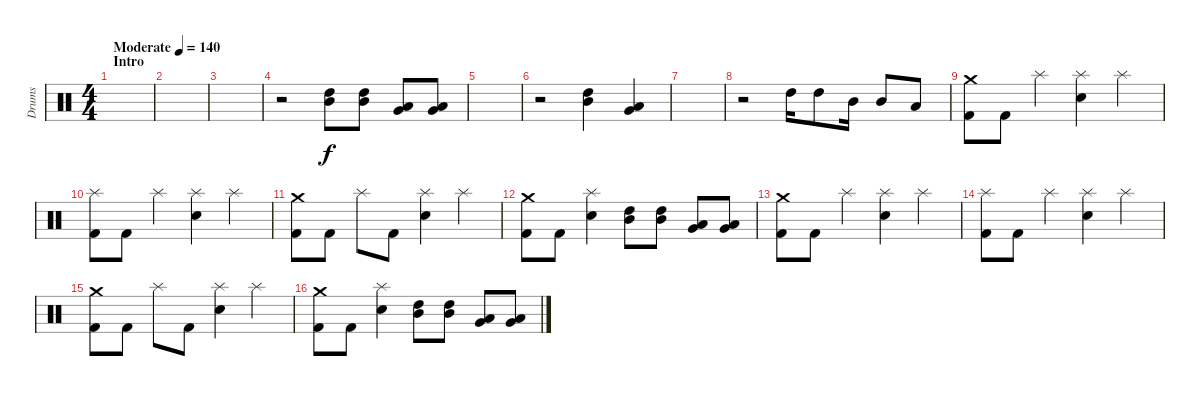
\track ("Drums" "Drums") {instrument percussion}
\staff {score}
\articulation defaults
\ts (4 4)
\section ("" "Intro")
\tempo (140 "Moderate")
\clef neutral
\ks c
|
|
|
r.2 ("High Tom (hit)" "Mid Tom (hit)").8 ("High Tom (hit)" "Mid Tom (hit)").8 ("Low Tom (hit)" "Very Low Tom (hit)").8 ("Low Tom (hit)" "Very Low Tom (hit)").8 |
|
r.2 ("High Tom (hit)" "Mid Tom (hit)").4 ("Low Tom (hit)" "Very Low Tom (hit)").4 |
|
r.2 "High Tom (hit)".16 "High Tom (hit)".8 "Mid Tom (hit)".16 "Mid Tom (hit)".8 "Low Tom (hit)".8 |
("Kick (hit) 2" "Crash medium (hit)").8 "Kick (hit) 2".8 "Splash (hit)".4 ("Snare (hit) 2" "Splash (hit)").4 "Splash (hit)".4 |
("Kick (hit) 2" "Splash (hit)").8 "Kick (hit) 2".8 "Splash (hit)".4 ("Snare (hit) 2" "Splash (hit)").4 "Splash (hit)".4 |
("Kick (hit) 2" "Crash medium (hit)").8 "Kick (hit) 2".8 "Splash (hit)".8 "Kick (hit) 2".8 ("Snare (hit) 2" "Splash (hit)").4 "Splash (hit)".4 |
("Kick (hit) 2" "Crash medium (hit)").8 "Kick (hit) 2".8 ("Snare (hit) 2" "Splash (hit)").4 ("High Tom (hit)" "Mid Tom (hit)").8 ("High Tom (hit)" "Mid Tom (hit)").8 ("Low Tom (hit)" "Very Low Tom (hit)").8 ("Low Tom (hit)" "Very Low Tom (hit)").8 |
("Kick (hit) 2" "Crash medium (hit)").8 "Kick (hit) 2".8 "Splash (hit)".4 ("Snare (hit) 2" "Splash (hit)").4 "Splash (hit)".4 |
("Kick (hit) 2" "Splash (hit)").8 "Kick (hit) 2".8 "Splash (hit)".4 ("Snare (hit) 2" "Splash (hit)").4 "Splash (hit)".4 |
("Kick (hit) 2" "Crash medium (hit)").8 "Kick (hit) 2".8 "Splash (hit)".8 "Kick (hit) 2".8 ("Snare (hit) 2" "Splash (hit)").4 "Splash (hit)".4 |
("Kick (hit) 2" "Crash medium (hit)").8 "Kick (hit) 2".8 ("Snare (hit) 2" "Splash (hit)").4 ("High Tom (hit)" "Mid Tom (hit)").8 ("High Tom (hit)" "Mid Tom (hit)").8 ("Low Tom (hit)" "Very Low Tom (hit)").8 ("Low Tom (hit)" "Very Low Tom (hit)").8
